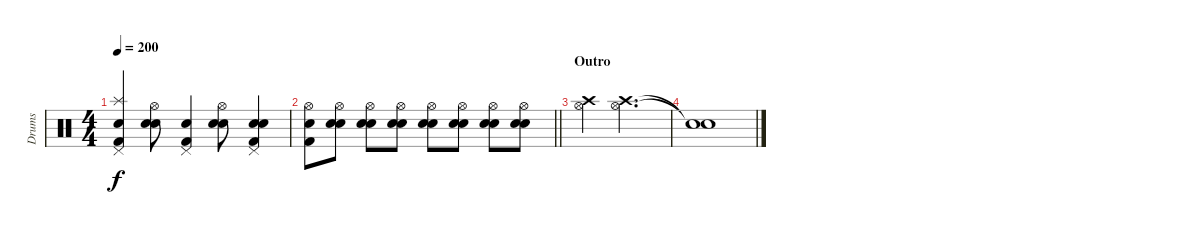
\track ("Drums" "Drums") {instrument percussion}
\staff {score}
\articulation defaults
\ts (4 4)
\tempo 200
\clef neutral
\ks c
("Pedal Hi-Hat (hit)" "Splash (hit)" "Snare (hit) 2" "Kick (hit) 2").4{dy f} ("Hi-Hat (open)" "Snare (hit) 2" "Electric Snare (hit)").8 ("Pedal Hi-Hat (hit)" "Snare (hit) 2" "Kick (hit) 2").4 ("Hi-Hat (open)" "Snare (hit) 2" "Electric Snare (hit)").8 ("Pedal Hi-Hat (hit)" "Snare (hit) 2" "Electric Snare (hit)" "Kick (hit) 2").4 |
\barLineRight lightlight
("Hi-Hat (open)" "Snare (hit) 2" "Kick (hit) 2").8 ("Hi-Hat (open)" "Snare (hit) 2" "Electric Snare (hit)").8 ("Hi-Hat (open)" "Snare (hit) 2" "Electric Snare (hit)").8 ("Hi-Hat (open)" "Snare (hit) 2" "Electric Snare (hit)").8 ("Hi-Hat (open)" "Snare (hit) 2" "Electric Snare (hit)").8 ("Hi-Hat (open)" "Snare (hit) 2" "Electric Snare (hit)").8 ("Hi-Hat (open)" "Snare (hit) 2" "Electric Snare (hit)").8 ("Hi-Hat (open)" "Snare (hit) 2" "Electric Snare (hit)").8 |
\section ("" "Outro")
("Hi-Hat (open)" "Crash high (hit)").4 ("Hi-Hat (open)" "Crash high (hit)").2{d} |
("Snare (hit)"{t} "Snare (hit)"{t}).1
